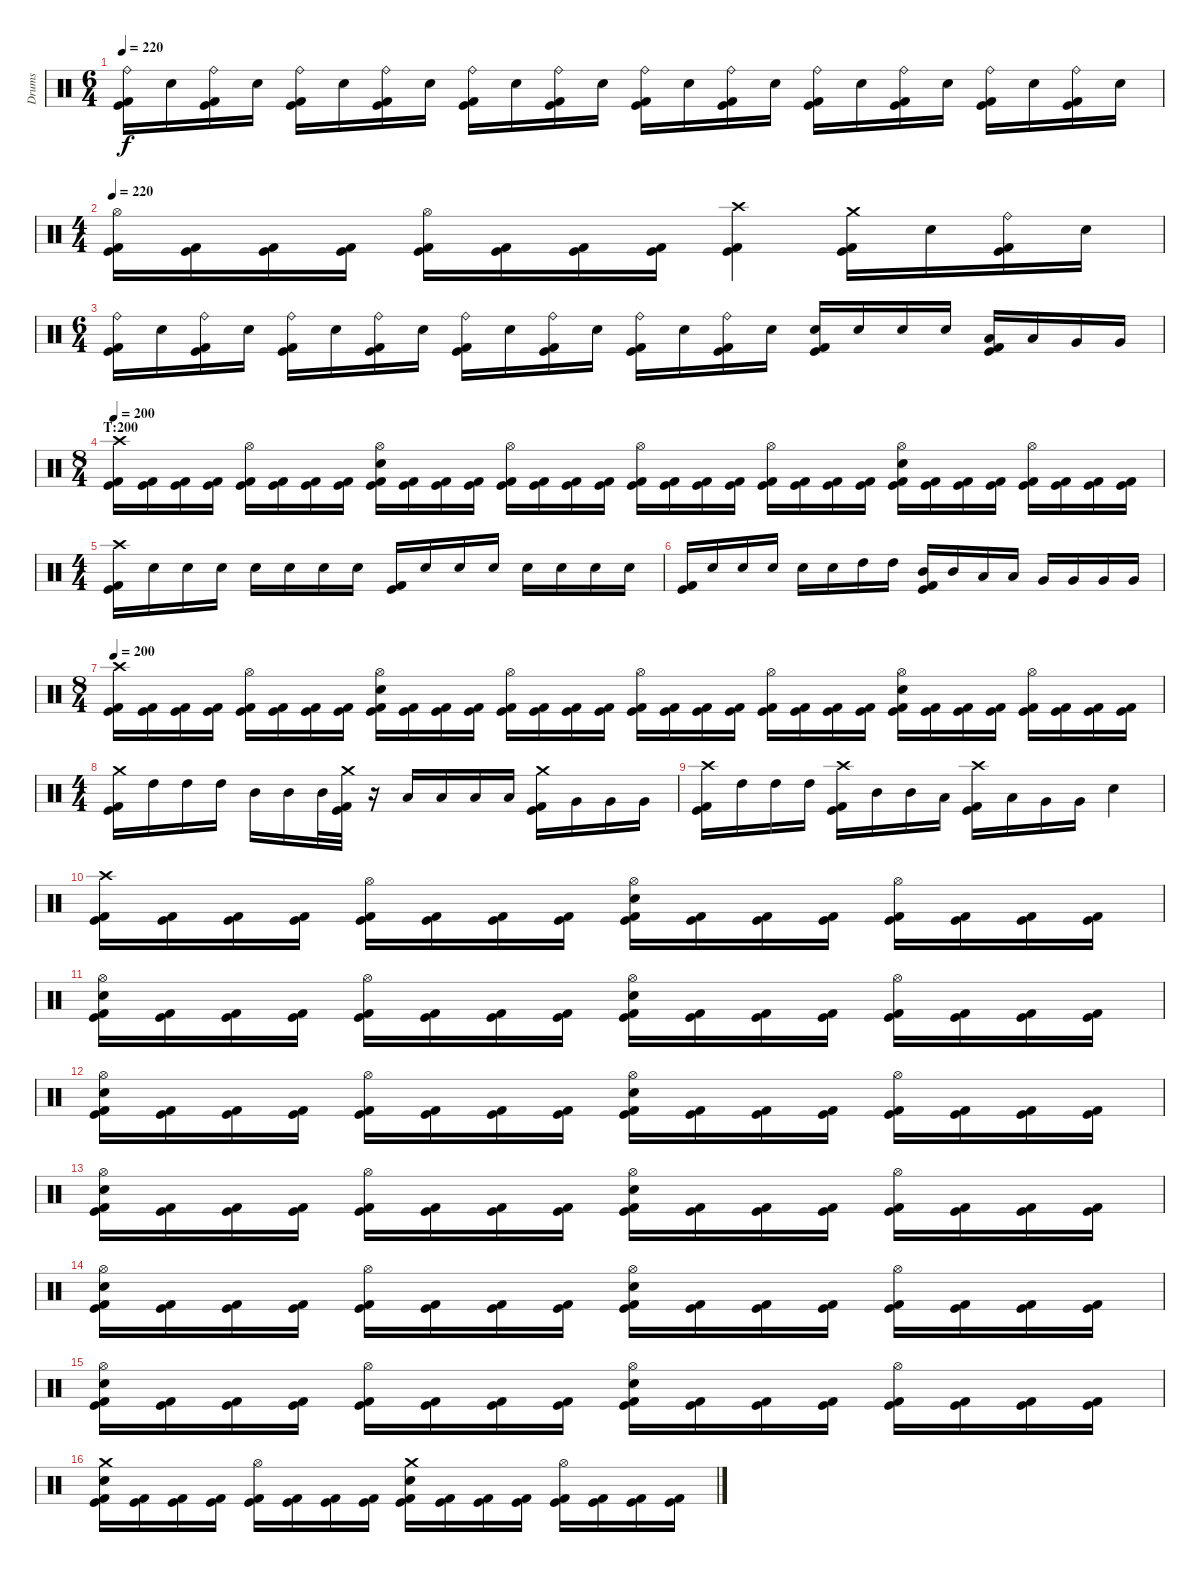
\track ("Drums" "Drums") {instrument percussion}
\staff {score}
\articulation defaults
\ts (6 4)
\tempo 220
\clef neutral
\ks c
("Ride (bell)" "Kick (hit)" "Kick (hit) 2").16{dy f} "Electric Snare (hit)".16 ("Ride (bell)" "Kick (hit)" "Kick (hit) 2").16 "Electric Snare (hit)".16 ("Ride (bell)" "Kick (hit)" "Kick (hit) 2").16 "Electric Snare (hit)".16 ("Ride (bell)" "Kick (hit)" "Kick (hit) 2").16 "Electric Snare (hit)".16 ("Ride (bell)" "Kick (hit)" "Kick (hit) 2").16 "Electric Snare (hit)".16 ("Ride (bell)" "Kick (hit)" "Kick (hit) 2").16 "Electric Snare (hit)".16 ("Ride (bell)" "Kick (hit)" "Kick (hit) 2").16 "Electric Snare (hit)".16 ("Ride (bell)" "Kick (hit)" "Kick (hit) 2").16 "Electric Snare (hit)".16 ("Ride (bell)" "Kick (hit)" "Kick (hit) 2").16 "Electric Snare (hit)".16 ("Ride (bell)" "Kick (hit)" "Kick (hit) 2").16 "Electric Snare (hit)".16 ("Ride (bell)" "Kick (hit)" "Kick (hit) 2").16 "Electric Snare (hit)".16 ("Ride (bell)" "Kick (hit)" "Kick (hit) 2").16 "Electric Snare (hit)".16 |
\ts (4 4)
\tempo 220
("Hi-Hat (open)" "Kick (hit)" "Kick (hit) 2").16 ("Kick (hit)" "Kick (hit) 2").16 ("Kick (hit)" "Kick (hit) 2").16 ("Kick (hit)" "Kick (hit) 2").16 ("Hi-Hat (open)" "Kick (hit)" "Kick (hit) 2").16 ("Kick (hit)" "Kick (hit) 2").16 ("Kick (hit)" "Kick (hit) 2").16 ("Kick (hit)" "Kick (hit) 2").16 ("Crash high (hit)" "Kick (hit)" "Kick (hit) 2").4 ("Crash medium (hit)" "Kick (hit)" "Kick (hit) 2").16 "Electric Snare (hit)".16 ("Ride (bell)" "Kick (hit)" "Kick (hit) 2").16 "Electric Snare (hit)".16 |
\ts (6 4)
("Ride (bell)" "Kick (hit)" "Kick (hit) 2").16 "Electric Snare (hit)".16 ("Ride (bell)" "Kick (hit)" "Kick (hit) 2").16 "Electric Snare (hit)".16 ("Ride (bell)" "Kick (hit)" "Kick (hit) 2").16 "Electric Snare (hit)".16 ("Ride (bell)" "Kick (hit)" "Kick (hit) 2").16 "Electric Snare (hit)".16 ("Ride (bell)" "Kick (hit)" "Kick (hit) 2").16 "Electric Snare (hit)".16 ("Ride (bell)" "Kick (hit)" "Kick (hit) 2").16 "Electric Snare (hit)".16 ("Ride (bell)" "Kick (hit)" "Kick (hit) 2").16 "Electric Snare (hit)".16 ("Ride (bell)" "Kick (hit)" "Kick (hit) 2").16 "Electric Snare (hit)".16 ("Electric Snare (hit)" "Kick (hit)" "Kick (hit) 2").16 "Electric Snare (hit)".16 "Electric Snare (hit)".16 "Electric Snare (hit)".16 ("Low Tom (hit)" "Kick (hit)" "Kick (hit) 2").16 "Low Tom (hit)".16 "Very Low Tom (hit)".16 "Very Low Tom (hit)".16 |
\ts (8 4)
\section ("" "T:200")
\tempo 200
("Crash high (hit)" "Kick (hit)" "Kick (hit) 2").16 ("Kick (hit)" "Kick (hit) 2").16 ("Kick (hit)" "Kick (hit) 2").16 ("Kick (hit)" "Kick (hit) 2").16 ("Hi-Hat (open)" "Kick (hit)" "Kick (hit) 2").16 ("Kick (hit)" "Kick (hit) 2").16 ("Kick (hit)" "Kick (hit) 2").16 ("Kick (hit)" "Kick (hit) 2").16 ("Hi-Hat (open)" "Electric Snare (hit)" "Kick (hit)" "Kick (hit) 2").16 ("Kick (hit)" "Kick (hit) 2").16 ("Kick (hit)" "Kick (hit) 2").16 ("Kick (hit)" "Kick (hit) 2").16 ("Hi-Hat (open)" "Kick (hit)" "Kick (hit) 2").16 ("Kick (hit)" "Kick (hit) 2").16 ("Kick (hit)" "Kick (hit) 2").16 ("Kick (hit)" "Kick (hit) 2").16 ("Hi-Hat (open)" "Kick (hit)" "Kick (hit) 2").16 ("Kick (hit)" "Kick (hit) 2").16 ("Kick (hit)" "Kick (hit) 2").16 ("Kick (hit)" "Kick (hit) 2").16 ("Hi-Hat (open)" "Kick (hit)" "Kick (hit) 2").16 ("Kick (hit)" "Kick (hit) 2").16 ("Kick (hit)" "Kick (hit) 2").16 ("Kick (hit)" "Kick (hit) 2").16 ("Hi-Hat (open)" "Electric Snare (hit)" "Kick (hit)" "Kick (hit) 2").16 ("Kick (hit)" "Kick (hit) 2").16 ("Kick (hit)" "Kick (hit) 2").16 ("Kick (hit)" "Kick (hit) 2").16 ("Hi-Hat (open)" "Kick (hit)" "Kick (hit) 2").16 ("Kick (hit)" "Kick (hit) 2").16 ("Kick (hit)" "Kick (hit) 2").16 ("Kick (hit)" "Kick (hit) 2").16 |
\ts (4 4)
("Crash high (hit)" "Kick (hit)" "Kick (hit) 2").16 "Electric Snare (hit)".16 "Electric Snare (hit)".16 "Electric Snare (hit)".16 "Electric Snare (hit)".16 "Electric Snare (hit)".16 "Electric Snare (hit)".16 "Electric Snare (hit)".16 ("Kick (hit)" "Kick (hit) 2").16 "Electric Snare (hit)".16 "Electric Snare (hit)".16 "Electric Snare (hit)".16 "Electric Snare (hit)".16 "Electric Snare (hit)".16 "Electric Snare (hit)".16 "Electric Snare (hit)".16 |
("Kick (hit)" "Kick (hit) 2").16 "Electric Snare (hit)".16 "Electric Snare (hit)".16 "Electric Snare (hit)".16 "Electric Snare (hit)".16 "Electric Snare (hit)".16 "High Tom (hit)".16 "High Tom (hit)".16 ("Mid Tom (hit)" "Kick (hit)" "Kick (hit) 2").16 "Mid Tom (hit)".16 "Low Tom (hit)".16 "Low Tom (hit)".16 "Very Low Tom (hit)".16 "Very Low Tom (hit)".16 "Very Low Tom (hit)".16 "Very Low Tom (hit)".16 |
\ts (8 4)
\tempo 200
("Crash high (hit)" "Kick (hit)" "Kick (hit) 2").16 ("Kick (hit)" "Kick (hit) 2").16 ("Kick (hit)" "Kick (hit) 2").16 ("Kick (hit)" "Kick (hit) 2").16 ("Hi-Hat (open)" "Kick (hit)" "Kick (hit) 2").16 ("Kick (hit)" "Kick (hit) 2").16 ("Kick (hit)" "Kick (hit) 2").16 ("Kick (hit)" "Kick (hit) 2").16 ("Hi-Hat (open)" "Electric Snare (hit)" "Kick (hit)" "Kick (hit) 2").16 ("Kick (hit)" "Kick (hit) 2").16 ("Kick (hit)" "Kick (hit) 2").16 ("Kick (hit)" "Kick (hit) 2").16 ("Hi-Hat (open)" "Kick (hit)" "Kick (hit) 2").16 ("Kick (hit)" "Kick (hit) 2").16 ("Kick (hit)" "Kick (hit) 2").16 ("Kick (hit)" "Kick (hit) 2").16 ("Hi-Hat (open)" "Kick (hit)" "Kick (hit) 2").16 ("Kick (hit)" "Kick (hit) 2").16 ("Kick (hit)" "Kick (hit) 2").16 ("Kick (hit)" "Kick (hit) 2").16 ("Hi-Hat (open)" "Kick (hit)" "Kick (hit) 2").16 ("Kick (hit)" "Kick (hit) 2").16 ("Kick (hit)" "Kick (hit) 2").16 ("Kick (hit)" "Kick (hit) 2").16 ("Hi-Hat (open)" "Electric Snare (hit)" "Kick (hit)" "Kick (hit) 2").16 ("Kick (hit)" "Kick (hit) 2").16 ("Kick (hit)" "Kick (hit) 2").16 ("Kick (hit)" "Kick (hit) 2").16 ("Hi-Hat (open)" "Kick (hit)" "Kick (hit) 2").16 ("Kick (hit)" "Kick (hit) 2").16 ("Kick (hit)" "Kick (hit) 2").16 ("Kick (hit)" "Kick (hit) 2").16 |
\ts (4 4)
("Crash medium (hit)" "Kick (hit)" "Kick (hit) 2").16 "High Tom (hit)".16 "High Tom (hit)".16 "High Tom (hit)".16 "Mid Tom (hit)".16 "Mid Tom (hit)".16 "Mid Tom (hit)".32 ("Crash medium (hit)" "Kick (hit)" "Kick (hit) 2").32 r.16 "Low Tom (hit)".16 "Low Tom (hit)".16 "Low Tom (hit)".16 "Low Tom (hit)".16 ("Crash medium (hit)" "Kick (hit)" "Kick (hit) 2").16 "Very Low Tom (hit)".16 "Very Low Tom (hit)".16 "Very Low Tom (hit)".16 |
("Crash high (hit)" "Kick (hit)" "Kick (hit) 2").16 "High Tom (hit)".16 "High Tom (hit)".16 "High Tom (hit)".16 ("Crash high (hit)" "Kick (hit)" "Kick (hit) 2").16 "Mid Tom (hit)".16 "Mid Tom (hit)".16 "Low Tom (hit)".16 ("Crash high (hit)" "Kick (hit)" "Kick (hit) 2").16 "Low Tom (hit)".16 "Very Low Tom (hit)".16 "Very Low Tom (hit)".16 "Electric Snare (hit)".4 |
("Crash high (hit)" "Kick (hit)" "Kick (hit) 2").16 ("Kick (hit)" "Kick (hit) 2").16 ("Kick (hit)" "Kick (hit) 2").16 ("Kick (hit)" "Kick (hit) 2").16 ("Hi-Hat (open)" "Kick (hit)" "Kick (hit) 2").16 ("Kick (hit)" "Kick (hit) 2").16 ("Kick (hit)" "Kick (hit) 2").16 ("Kick (hit)" "Kick (hit) 2").16 ("Hi-Hat (open)" "Electric Snare (hit)" "Kick (hit)" "Kick (hit) 2").16 ("Kick (hit)" "Kick (hit) 2").16 ("Kick (hit)" "Kick (hit) 2").16 ("Kick (hit)" "Kick (hit) 2").16 ("Hi-Hat (open)" "Kick (hit)" "Kick (hit) 2").16 ("Kick (hit)" "Kick (hit) 2").16 ("Kick (hit)" "Kick (hit) 2").16 ("Kick (hit)" "Kick (hit) 2").16 |
("Hi-Hat (open)" "Electric Snare (hit)" "Kick (hit)" "Kick (hit) 2").16 ("Kick (hit)" "Kick (hit) 2").16 ("Kick (hit)" "Kick (hit) 2").16 ("Kick (hit)" "Kick (hit) 2").16 ("Hi-Hat (open)" "Kick (hit)" "Kick (hit) 2").16 ("Kick (hit)" "Kick (hit) 2").16 ("Kick (hit)" "Kick (hit) 2").16 ("Kick (hit)" "Kick (hit) 2").16 ("Hi-Hat (open)" "Electric Snare (hit)" "Kick (hit)" "Kick (hit) 2").16 ("Kick (hit)" "Kick (hit) 2").16 ("Kick (hit)" "Kick (hit) 2").16 ("Kick (hit)" "Kick (hit) 2").16 ("Hi-Hat (open)" "Kick (hit)" "Kick (hit) 2").16 ("Kick (hit)" "Kick (hit) 2").16 ("Kick (hit)" "Kick (hit) 2").16 ("Kick (hit)" "Kick (hit) 2").16 |
("Hi-Hat (open)" "Electric Snare (hit)" "Kick (hit)" "Kick (hit) 2").16 ("Kick (hit)" "Kick (hit) 2").16 ("Kick (hit)" "Kick (hit) 2").16 ("Kick (hit)" "Kick (hit) 2").16 ("Hi-Hat (open)" "Kick (hit)" "Kick (hit) 2").16 ("Kick (hit)" "Kick (hit) 2").16 ("Kick (hit)" "Kick (hit) 2").16 ("Kick (hit)" "Kick (hit) 2").16 ("Hi-Hat (open)" "Electric Snare (hit)" "Kick (hit)" "Kick (hit) 2").16 ("Kick (hit)" "Kick (hit) 2").16 ("Kick (hit)" "Kick (hit) 2").16 ("Kick (hit)" "Kick (hit) 2").16 ("Hi-Hat (open)" "Kick (hit)" "Kick (hit) 2").16 ("Kick (hit)" "Kick (hit) 2").16 ("Kick (hit)" "Kick (hit) 2").16 ("Kick (hit)" "Kick (hit) 2").16 |
("Hi-Hat (open)" "Electric Snare (hit)" "Kick (hit)" "Kick (hit) 2").16 ("Kick (hit)" "Kick (hit) 2").16 ("Kick (hit)" "Kick (hit) 2").16 ("Kick (hit)" "Kick (hit) 2").16 ("Hi-Hat (open)" "Kick (hit)" "Kick (hit) 2").16 ("Kick (hit)" "Kick (hit) 2").16 ("Kick (hit)" "Kick (hit) 2").16 ("Kick (hit)" "Kick (hit) 2").16 ("Hi-Hat (open)" "Electric Snare (hit)" "Kick (hit)" "Kick (hit) 2").16 ("Kick (hit)" "Kick (hit) 2").16 ("Kick (hit)" "Kick (hit) 2").16 ("Kick (hit)" "Kick (hit) 2").16 ("Hi-Hat (open)" "Kick (hit)" "Kick (hit) 2").16 ("Kick (hit)" "Kick (hit) 2").16 ("Kick (hit)" "Kick (hit) 2").16 ("Kick (hit)" "Kick (hit) 2").16 |
("Hi-Hat (open)" "Electric Snare (hit)" "Kick (hit)" "Kick (hit) 2").16 ("Kick (hit)" "Kick (hit) 2").16 ("Kick (hit)" "Kick (hit) 2").16 ("Kick (hit)" "Kick (hit) 2").16 ("Hi-Hat (open)" "Kick (hit)" "Kick (hit) 2").16 ("Kick (hit)" "Kick (hit) 2").16 ("Kick (hit)" "Kick (hit) 2").16 ("Kick (hit)" "Kick (hit) 2").16 ("Hi-Hat (open)" "Electric Snare (hit)" "Kick (hit)" "Kick (hit) 2").16 ("Kick (hit)" "Kick (hit) 2").16 ("Kick (hit)" "Kick (hit) 2").16 ("Kick (hit)" "Kick (hit) 2").16 ("Hi-Hat (open)" "Kick (hit)" "Kick (hit) 2").16 ("Kick (hit)" "Kick (hit) 2").16 ("Kick (hit)" "Kick (hit) 2").16 ("Kick (hit)" "Kick (hit) 2").16 |
("Hi-Hat (open)" "Electric Snare (hit)" "Kick (hit)" "Kick (hit) 2").16 ("Kick (hit)" "Kick (hit) 2").16 ("Kick (hit)" "Kick (hit) 2").16 ("Kick (hit)" "Kick (hit) 2").16 ("Hi-Hat (open)" "Kick (hit)" "Kick (hit) 2").16 ("Kick (hit)" "Kick (hit) 2").16 ("Kick (hit)" "Kick (hit) 2").16 ("Kick (hit)" "Kick (hit) 2").16 ("Hi-Hat (open)" "Electric Snare (hit)" "Kick (hit)" "Kick (hit) 2").16 ("Kick (hit)" "Kick (hit) 2").16 ("Kick (hit)" "Kick (hit) 2").16 ("Kick (hit)" "Kick (hit) 2").16 ("Hi-Hat (open)" "Kick (hit)" "Kick (hit) 2").16 ("Kick (hit)" "Kick (hit) 2").16 ("Kick (hit)" "Kick (hit) 2").16 ("Kick (hit)" "Kick (hit) 2").16 |
("Crash medium (hit)" "Electric Snare (hit)" "Kick (hit)" "Kick (hit) 2").16 ("Kick (hit)" "Kick (hit) 2").16 ("Kick (hit)" "Kick (hit) 2").16 ("Kick (hit)" "Kick (hit) 2").16 ("Hi-Hat (open)" "Kick (hit)" "Kick (hit) 2").16 ("Kick (hit)" "Kick (hit) 2").16 ("Kick (hit)" "Kick (hit) 2").16 ("Kick (hit)" "Kick (hit) 2").16 ("Crash medium (hit)" "Electric Snare (hit)" "Kick (hit)" "Kick (hit) 2").16 ("Kick (hit)" "Kick (hit) 2").16 ("Kick (hit)" "Kick (hit) 2").16 ("Kick (hit)" "Kick (hit) 2").16 ("Hi-Hat (open)" "Kick (hit)" "Kick (hit) 2").16 ("Kick (hit)" "Kick (hit) 2").16 ("Kick (hit)" "Kick (hit) 2").16 ("Kick (hit)" "Kick (hit) 2").16
